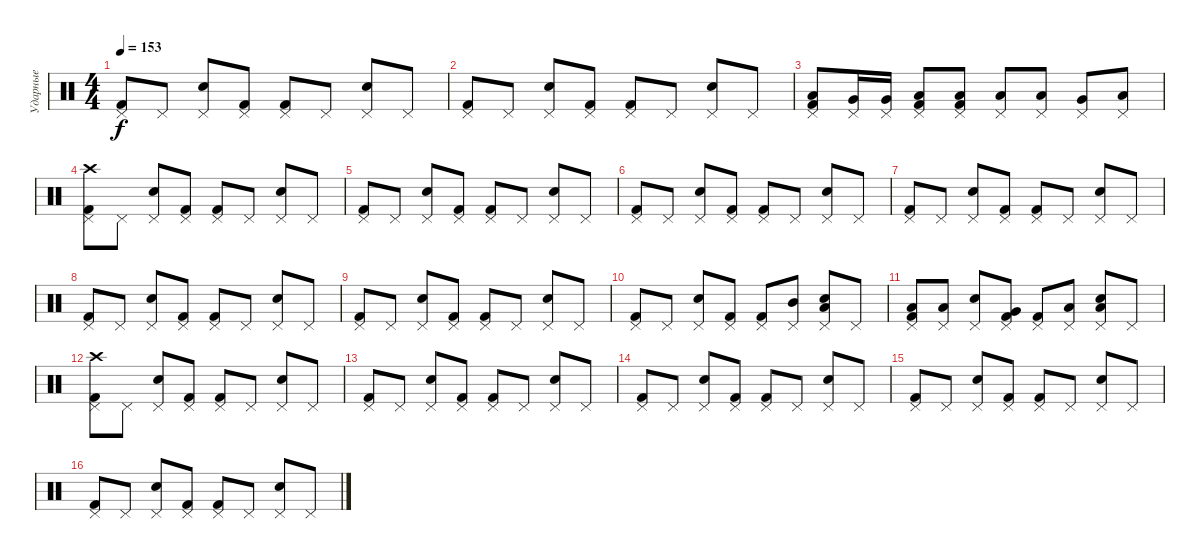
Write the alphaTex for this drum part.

\track ("Ударные" "Ударные") {instrument percussion}
\staff {score}
\articulation defaults
\ts (4 4)
\tempo 153
\clef neutral
\ks c
("Pedal Hi-Hat (hit)" "Kick (hit) 2").8{dy f} "Pedal Hi-Hat (hit)".8 ("Electric Snare (hit)" "Pedal Hi-Hat (hit)").8 ("Pedal Hi-Hat (hit)" "Kick (hit) 2").8 ("Pedal Hi-Hat (hit)" "Kick (hit) 2").8 "Pedal Hi-Hat (hit)".8 ("Electric Snare (hit)" "Pedal Hi-Hat (hit)").8 "Pedal Hi-Hat (hit)".8 |
("Pedal Hi-Hat (hit)" "Kick (hit) 2").8 "Pedal Hi-Hat (hit)".8 ("Electric Snare (hit)" "Pedal Hi-Hat (hit)").8 ("Pedal Hi-Hat (hit)" "Kick (hit) 2").8 ("Pedal Hi-Hat (hit)" "Kick (hit) 2").8 "Pedal Hi-Hat (hit)".8 ("Electric Snare (hit)" "Pedal Hi-Hat (hit)").8 "Pedal Hi-Hat (hit)".8 |
("Low Tom (hit)" "Pedal Hi-Hat (hit)" "Kick (hit) 2").8 ("Very Low Tom (hit)" "Pedal Hi-Hat (hit)").16 ("Very Low Tom (hit)" "Pedal Hi-Hat (hit)").16 ("Low Floor Tom (hit)" "Pedal Hi-Hat (hit)" "Kick (hit) 2").8 ("Low Floor Tom (hit)" "Pedal Hi-Hat (hit)" "Kick (hit) 2").8 ("Low Floor Tom (hit)" "Pedal Hi-Hat (hit)").8 ("Low Floor Tom (hit)" "Pedal Hi-Hat (hit)").8 ("Very Low Tom (hit)" "Pedal Hi-Hat (hit)").8 ("Low Floor Tom (hit)" "Pedal Hi-Hat (hit)").8 |
("Crash high (hit)" "Pedal Hi-Hat (hit)" "Kick (hit) 2").8 "Pedal Hi-Hat (hit)".8 ("Electric Snare (hit)" "Pedal Hi-Hat (hit)").8 ("Pedal Hi-Hat (hit)" "Kick (hit) 2").8 ("Pedal Hi-Hat (hit)" "Kick (hit) 2").8 "Pedal Hi-Hat (hit)".8 ("Electric Snare (hit)" "Pedal Hi-Hat (hit)").8 "Pedal Hi-Hat (hit)".8 |
("Pedal Hi-Hat (hit)" "Kick (hit) 2").8 "Pedal Hi-Hat (hit)".8 ("Electric Snare (hit)" "Pedal Hi-Hat (hit)").8 ("Pedal Hi-Hat (hit)" "Kick (hit) 2").8 ("Pedal Hi-Hat (hit)" "Kick (hit) 2").8 "Pedal Hi-Hat (hit)".8 ("Electric Snare (hit)" "Pedal Hi-Hat (hit)").8 "Pedal Hi-Hat (hit)".8 |
("Pedal Hi-Hat (hit)" "Kick (hit) 2").8 "Pedal Hi-Hat (hit)".8 ("Electric Snare (hit)" "Pedal Hi-Hat (hit)").8 ("Pedal Hi-Hat (hit)" "Kick (hit) 2").8 ("Pedal Hi-Hat (hit)" "Kick (hit) 2").8 "Pedal Hi-Hat (hit)".8 ("Electric Snare (hit)" "Pedal Hi-Hat (hit)").8 "Pedal Hi-Hat (hit)".8 |
("Pedal Hi-Hat (hit)" "Kick (hit) 2").8 "Pedal Hi-Hat (hit)".8 ("Electric Snare (hit)" "Pedal Hi-Hat (hit)").8 ("Pedal Hi-Hat (hit)" "Kick (hit) 2").8 ("Pedal Hi-Hat (hit)" "Kick (hit) 2").8 "Pedal Hi-Hat (hit)".8 ("Electric Snare (hit)" "Pedal Hi-Hat (hit)").8 "Pedal Hi-Hat (hit)".8 |
("Pedal Hi-Hat (hit)" "Kick (hit) 2").8 "Pedal Hi-Hat (hit)".8 ("Electric Snare (hit)" "Pedal Hi-Hat (hit)").8 ("Pedal Hi-Hat (hit)" "Kick (hit) 2").8 ("Pedal Hi-Hat (hit)" "Kick (hit) 2").8 "Pedal Hi-Hat (hit)".8 ("Electric Snare (hit)" "Pedal Hi-Hat (hit)").8 "Pedal Hi-Hat (hit)".8 |
("Pedal Hi-Hat (hit)" "Kick (hit) 2").8 "Pedal Hi-Hat (hit)".8 ("Electric Snare (hit)" "Pedal Hi-Hat (hit)").8 ("Pedal Hi-Hat (hit)" "Kick (hit) 2").8 ("Pedal Hi-Hat (hit)" "Kick (hit) 2").8 "Pedal Hi-Hat (hit)".8 ("Electric Snare (hit)" "Pedal Hi-Hat (hit)").8 "Pedal Hi-Hat (hit)".8 |
("Pedal Hi-Hat (hit)" "Kick (hit) 2").8 "Pedal Hi-Hat (hit)".8 ("Electric Snare (hit)" "Pedal Hi-Hat (hit)").8 ("Pedal Hi-Hat (hit)" "Kick (hit) 2").8 ("Pedal Hi-Hat (hit)" "Kick (hit) 2").8 ("Mid Tom (hit)" "Pedal Hi-Hat (hit)").8 ("Low Tom (hit)" "Electric Snare (hit)" "Pedal Hi-Hat (hit)").8 "Pedal Hi-Hat (hit)".8 |
("Low Tom (hit)" "Pedal Hi-Hat (hit)" "Kick (hit) 2").8 ("Low Tom (hit)" "Pedal Hi-Hat (hit)").8 ("Electric Snare (hit)" "Pedal Hi-Hat (hit)").8 ("Very Low Tom (hit)" "Pedal Hi-Hat (hit)" "Kick (hit) 2").8 ("Pedal Hi-Hat (hit)" "Kick (hit) 2").8 ("Low Floor Tom (hit)" "Pedal Hi-Hat (hit)").8 ("Low Floor Tom (hit)" "Electric Snare (hit)" "Pedal Hi-Hat (hit)").8 "Pedal Hi-Hat (hit)".8 |
("Crash high (hit)" "Pedal Hi-Hat (hit)" "Kick (hit) 2").8 "Pedal Hi-Hat (hit)".8 ("Electric Snare (hit)" "Pedal Hi-Hat (hit)").8 ("Pedal Hi-Hat (hit)" "Kick (hit) 2").8 ("Pedal Hi-Hat (hit)" "Kick (hit) 2").8 "Pedal Hi-Hat (hit)".8 ("Electric Snare (hit)" "Pedal Hi-Hat (hit)").8 "Pedal Hi-Hat (hit)".8 |
("Pedal Hi-Hat (hit)" "Kick (hit) 2").8 "Pedal Hi-Hat (hit)".8 ("Electric Snare (hit)" "Pedal Hi-Hat (hit)").8 ("Pedal Hi-Hat (hit)" "Kick (hit) 2").8 ("Pedal Hi-Hat (hit)" "Kick (hit) 2").8 "Pedal Hi-Hat (hit)".8 ("Electric Snare (hit)" "Pedal Hi-Hat (hit)").8 "Pedal Hi-Hat (hit)".8 |
("Pedal Hi-Hat (hit)" "Kick (hit) 2").8 "Pedal Hi-Hat (hit)".8 ("Electric Snare (hit)" "Pedal Hi-Hat (hit)").8 ("Pedal Hi-Hat (hit)" "Kick (hit) 2").8 ("Pedal Hi-Hat (hit)" "Kick (hit) 2").8 "Pedal Hi-Hat (hit)".8 ("Electric Snare (hit)" "Pedal Hi-Hat (hit)").8 "Pedal Hi-Hat (hit)".8 |
("Pedal Hi-Hat (hit)" "Kick (hit) 2").8 "Pedal Hi-Hat (hit)".8 ("Electric Snare (hit)" "Pedal Hi-Hat (hit)").8 ("Pedal Hi-Hat (hit)" "Kick (hit) 2").8 ("Pedal Hi-Hat (hit)" "Kick (hit) 2").8 "Pedal Hi-Hat (hit)".8 ("Electric Snare (hit)" "Pedal Hi-Hat (hit)").8 "Pedal Hi-Hat (hit)".8 |
("Pedal Hi-Hat (hit)" "Kick (hit) 2").8 "Pedal Hi-Hat (hit)".8 ("Electric Snare (hit)" "Pedal Hi-Hat (hit)").8 ("Pedal Hi-Hat (hit)" "Kick (hit) 2").8 ("Pedal Hi-Hat (hit)" "Kick (hit) 2").8 "Pedal Hi-Hat (hit)".8 ("Electric Snare (hit)" "Pedal Hi-Hat (hit)").8 "Pedal Hi-Hat (hit)".8
